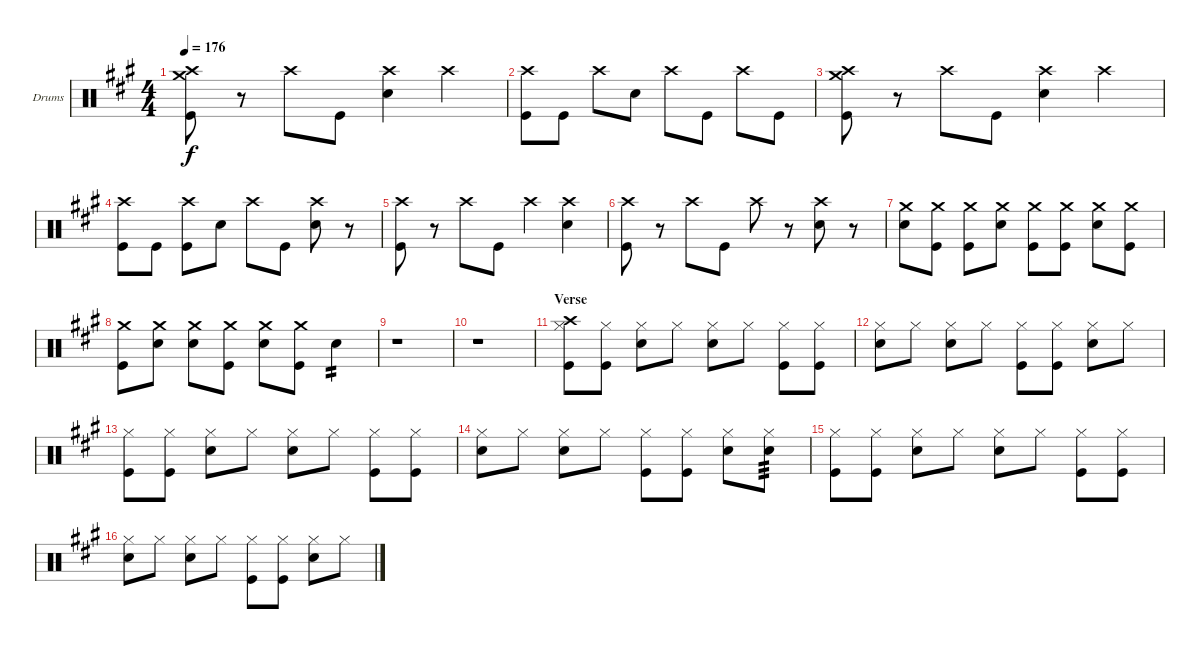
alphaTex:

\defaultSystemsLayout 4
\bracketExtendMode groupsimilarinstruments
\firstSystemTrackNameOrientation horizontal
\otherSystemsTrackNameOrientation horizontal
\track ("Drumkit" "Drums") {instrument percussion}
\staff {score}
\articulation defaults
\ts (4 4)
\tempo 176
\clef neutral
\scale
0.333333
\ks a
("Crash high (hit)" "Crash medium (hit)" "Kick (hit)").8{dy f} r.8 "Crash high (hit)".8 "Kick (hit)".8 ("Crash high (hit)" "Snare (hit) 2").4 "Crash high (hit)".4 |
\scale
0.333333 ("Crash high (hit)" "Kick (hit)").8 "Kick (hit)".8 "Crash high (hit)".8 "Snare (hit) 2".8 "Crash high (hit)".8 "Kick (hit)".8 "Crash high (hit)".8 "Kick (hit)".8 |
\scale
0.333333 ("Crash high (hit)" "Crash medium (hit)" "Kick (hit)").8 r.8 "Crash high (hit)".8 "Kick (hit)".8 ("Crash high (hit)" "Snare (hit) 2").4 "Crash high (hit)".4 |
\scale
0.333333 ("Crash high (hit)" "Kick (hit)").8 "Kick (hit)".8 ("Crash high (hit)" "Kick (hit)").8 "Snare (hit) 2".8 "Crash high (hit)".8 "Kick (hit)".8 ("Crash high (hit)" "Snare (hit) 2").8 r.8 |
\scale
0.333333 ("Crash high (hit)" "Kick (hit)").8 r.8 "Crash high (hit)".8 "Kick (hit)".8 "Crash high (hit)".4 ("Crash high (hit)" "Snare (hit) 2").4 |
\scale
0.333333 ("Crash high (hit)" "Kick (hit)").8 r.8 "Crash high (hit)".8 "Kick (hit)".8 "Crash high (hit)".8 r.8 ("Crash high (hit)" "Snare (hit) 2").8 r.8 |
\scale
0.333333 ("Crash medium (hit)" "Snare (hit) 2").8 ("Crash medium (hit)" "Kick (hit)").8 ("Crash medium (hit)" "Kick (hit)").8 ("Crash medium (hit)" "Snare (hit) 2").8 ("Crash medium (hit)" "Kick (hit)").8 ("Crash medium (hit)" "Kick (hit)").8 ("Crash medium (hit)" "Snare (hit) 2").8 ("Crash medium (hit)" "Kick (hit)").8 |
\scale
0.333333 ("Crash medium (hit)" "Kick (hit)").8 ("Crash medium (hit)" "Snare (hit) 2").8 ("Crash medium (hit)" "Snare (hit) 2").8 ("Crash medium (hit)" "Kick (hit)").8 ("Crash medium (hit)" "Snare (hit) 2").8 ("Crash medium (hit)" "Kick (hit)").8 "Snare (hit) 2".4{tp 2} |
\scale
0.333333 r.1 |
\scale
0.333333 r.1 |
\section ("" "Verse")
\scale
0.333333 ("Hi-Hat (closed)" "Crash high (hit)" "Kick (hit)").8 ("Hi-Hat (closed)" "Kick (hit)").8 ("Hi-Hat (closed)" "Snare (hit) 2").8 "Hi-Hat (closed)".8 ("Hi-Hat (closed)" "Snare (hit) 2").8 "Hi-Hat (closed)".8 ("Hi-Hat (closed)" "Kick (hit)").8 ("Hi-Hat (closed)" "Kick (hit)").8 |
\scale
0.333333 ("Hi-Hat (closed)" "Snare (hit) 2").8 "Hi-Hat (closed)".8 ("Hi-Hat (closed)" "Snare (hit) 2").8 "Hi-Hat (closed)".8 ("Hi-Hat (closed)" "Kick (hit)").8 ("Hi-Hat (closed)" "Kick (hit)").8 ("Hi-Hat (closed)" "Snare (hit) 2").8 "Hi-Hat (closed)".8 |
\scale
0.333333 ("Hi-Hat (closed)" "Kick (hit)").8 ("Hi-Hat (closed)" "Kick (hit)").8 ("Hi-Hat (closed)" "Snare (hit) 2").8 "Hi-Hat (closed)".8 ("Hi-Hat (closed)" "Snare (hit) 2").8 "Hi-Hat (closed)".8 ("Hi-Hat (closed)" "Kick (hit)").8 ("Hi-Hat (closed)" "Kick (hit)").8 |
\scale
0.333333 ("Hi-Hat (closed)" "Snare (hit) 2").8 "Hi-Hat (closed)".8 ("Hi-Hat (closed)" "Snare (hit) 2").8 "Hi-Hat (closed)".8 ("Hi-Hat (closed)" "Kick (hit)").8 ("Hi-Hat (closed)" "Kick (hit)").8 ("Hi-Hat (closed)" "Snare (hit) 2").8 ("Hi-Hat (closed)" "Snare (hit) 2").8{tp 3} |
\scale
0.333333 ("Hi-Hat (closed)" "Kick (hit)").8 ("Hi-Hat (closed)" "Kick (hit)").8 ("Hi-Hat (closed)" "Snare (hit) 2").8 "Hi-Hat (closed)".8 ("Hi-Hat (closed)" "Snare (hit) 2").8 "Hi-Hat (closed)".8 ("Hi-Hat (closed)" "Kick (hit)").8 ("Hi-Hat (closed)" "Kick (hit)").8 |
\scale
0.333333 ("Hi-Hat (closed)" "Snare (hit) 2").8 "Hi-Hat (closed)".8 ("Hi-Hat (closed)" "Snare (hit) 2").8 "Hi-Hat (closed)".8 ("Hi-Hat (closed)" "Kick (hit)").8 ("Hi-Hat (closed)" "Kick (hit)").8 ("Hi-Hat (closed)" "Snare (hit) 2").8 "Hi-Hat (closed)".8
